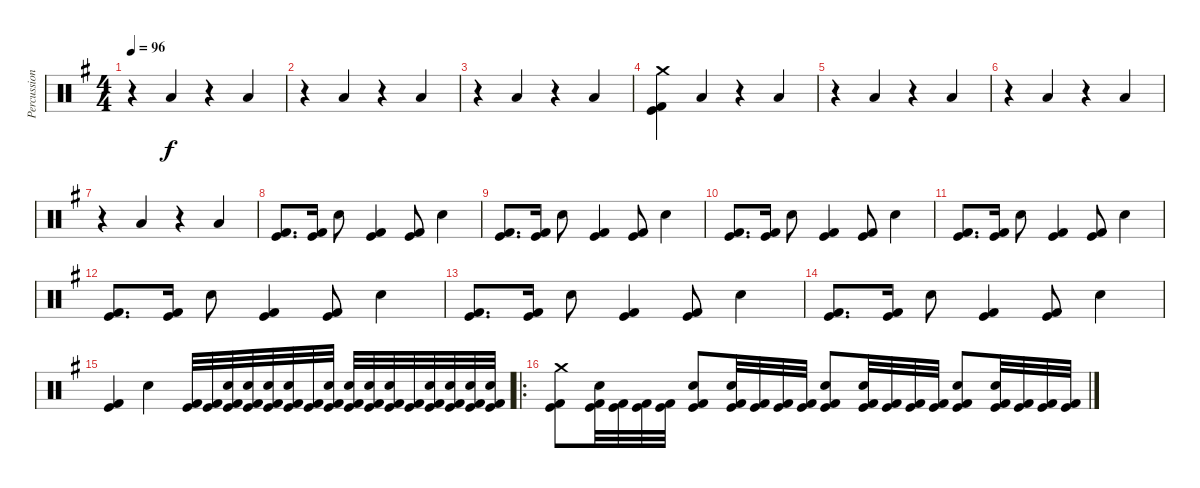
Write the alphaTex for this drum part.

\track ("Percussion" "Percussion") {instrument percussion}
\staff {score}
\articulation defaults
\ts (4 4)
\tempo 96
\clef neutral
\ks g
r.4{dy f} "Low Floor Tom (hit)".4 r.4 "Low Floor Tom (hit)".4 |
r.4 "Low Floor Tom (hit)".4 r.4 "Low Floor Tom (hit)".4 |
r.4 "Low Floor Tom (hit)".4 r.4 "Low Floor Tom (hit)".4 |
("Crash medium (hit)" "Kick (hit) 2" "Kick (hit)").4 "Low Floor Tom (hit)".4 r.4 "Low Floor Tom (hit)".4 |
r.4 "Low Floor Tom (hit)".4 r.4 "Low Floor Tom (hit)".4 |
r.4 "Low Floor Tom (hit)".4 r.4 "Low Floor Tom (hit)".4 |
r.4 "Low Floor Tom (hit)".4 r.4 "Low Floor Tom (hit)".4 |
("Kick (hit) 2" "Kick (hit)").8{d} ("Kick (hit) 2" "Kick (hit)").16 "Electric Snare (hit)".8 ("Kick (hit) 2" "Kick (hit)").4 ("Kick (hit) 2" "Kick (hit)").8 "Electric Snare (hit)".4 |
("Kick (hit) 2" "Kick (hit)").8{d} ("Kick (hit) 2" "Kick (hit)").16 "Electric Snare (hit)".8 ("Kick (hit) 2" "Kick (hit)").4 ("Kick (hit) 2" "Kick (hit)").8 "Electric Snare (hit)".4 |
("Kick (hit) 2" "Kick (hit)").8{d} ("Kick (hit) 2" "Kick (hit)").16 "Electric Snare (hit)".8 ("Kick (hit) 2" "Kick (hit)").4 ("Kick (hit) 2" "Kick (hit)").8 "Electric Snare (hit)".4 |
("Kick (hit) 2" "Kick (hit)").8{d} ("Kick (hit) 2" "Kick (hit)").16 "Electric Snare (hit)".8 ("Kick (hit) 2" "Kick (hit)").4 ("Kick (hit) 2" "Kick (hit)").8 "Electric Snare (hit)".4 |
("Kick (hit) 2" "Kick (hit)").8{d} ("Kick (hit) 2" "Kick (hit)").16 "Electric Snare (hit)".8 ("Kick (hit) 2" "Kick (hit)").4 ("Kick (hit) 2" "Kick (hit)").8 "Electric Snare (hit)".4 |
("Kick (hit) 2" "Kick (hit)").8{d} ("Kick (hit) 2" "Kick (hit)").16 "Electric Snare (hit)".8 ("Kick (hit) 2" "Kick (hit)").4 ("Kick (hit) 2" "Kick (hit)").8 "Electric Snare (hit)".4 |
("Kick (hit) 2" "Kick (hit)").8{d} ("Kick (hit) 2" "Kick (hit)").16 "Electric Snare (hit)".8 ("Kick (hit) 2" "Kick (hit)").4 ("Kick (hit) 2" "Kick (hit)").8 "Electric Snare (hit)".4 |
("Kick (hit) 2" "Kick (hit)").4 "Electric Snare (hit)".4 ("Kick (hit) 2" "Kick (hit)").32 ("Kick (hit) 2" "Kick (hit)").32 ("Electric Snare (hit)" "Kick (hit) 2" "Kick (hit)").32 ("Electric Snare (hit)" "Kick (hit) 2" "Kick (hit)").32 ("Electric Snare (hit)" "Kick (hit) 2" "Kick (hit)").32 ("Electric Snare (hit)" "Kick (hit) 2" "Kick (hit)").32 ("Kick (hit) 2" "Kick (hit)").32 ("Electric Snare (hit)" "Kick (hit) 2" "Kick (hit)").32 ("Electric Snare (hit)" "Kick (hit) 2" "Kick (hit)").32 ("Electric Snare (hit)" "Kick (hit) 2" "Kick (hit)").32 ("Electric Snare (hit)" "Kick (hit) 2" "Kick (hit)").32 ("Kick (hit) 2" "Kick (hit)").32 ("Electric Snare (hit)" "Kick (hit) 2" "Kick (hit)").32 ("Electric Snare (hit)" "Kick (hit) 2" "Kick (hit)").32 ("Electric Snare (hit)" "Kick (hit) 2" "Kick (hit)").32 ("Electric Snare (hit)" "Kick (hit) 2" "Kick (hit)").32 |
\ro
("Crash medium (hit)" "Kick (hit) 2" "Kick (hit)").8 ("Electric Snare (hit)" "Kick (hit) 2" "Kick (hit)").32 ("Kick (hit) 2" "Kick (hit)").32 ("Kick (hit) 2" "Kick (hit)").32 ("Kick (hit) 2" "Kick (hit)").32 ("Electric Snare (hit)" "Kick (hit) 2" "Kick (hit)").8 ("Electric Snare (hit)" "Kick (hit) 2" "Kick (hit)").32 ("Kick (hit) 2" "Kick (hit)").32 ("Kick (hit) 2" "Kick (hit)").32 ("Kick (hit) 2" "Kick (hit)").32 ("Electric Snare (hit)" "Kick (hit) 2" "Kick (hit)").8 ("Electric Snare (hit)" "Kick (hit) 2" "Kick (hit)").32 ("Kick (hit) 2" "Kick (hit)").32 ("Kick (hit) 2" "Kick (hit)").32 ("Kick (hit) 2" "Kick (hit)").32 ("Electric Snare (hit)" "Kick (hit) 2" "Kick (hit)").8 ("Electric Snare (hit)" "Kick (hit) 2" "Kick (hit)").32 ("Kick (hit) 2" "Kick (hit)").32 ("Kick (hit) 2" "Kick (hit)").32 ("Kick (hit) 2" "Kick (hit)").32
